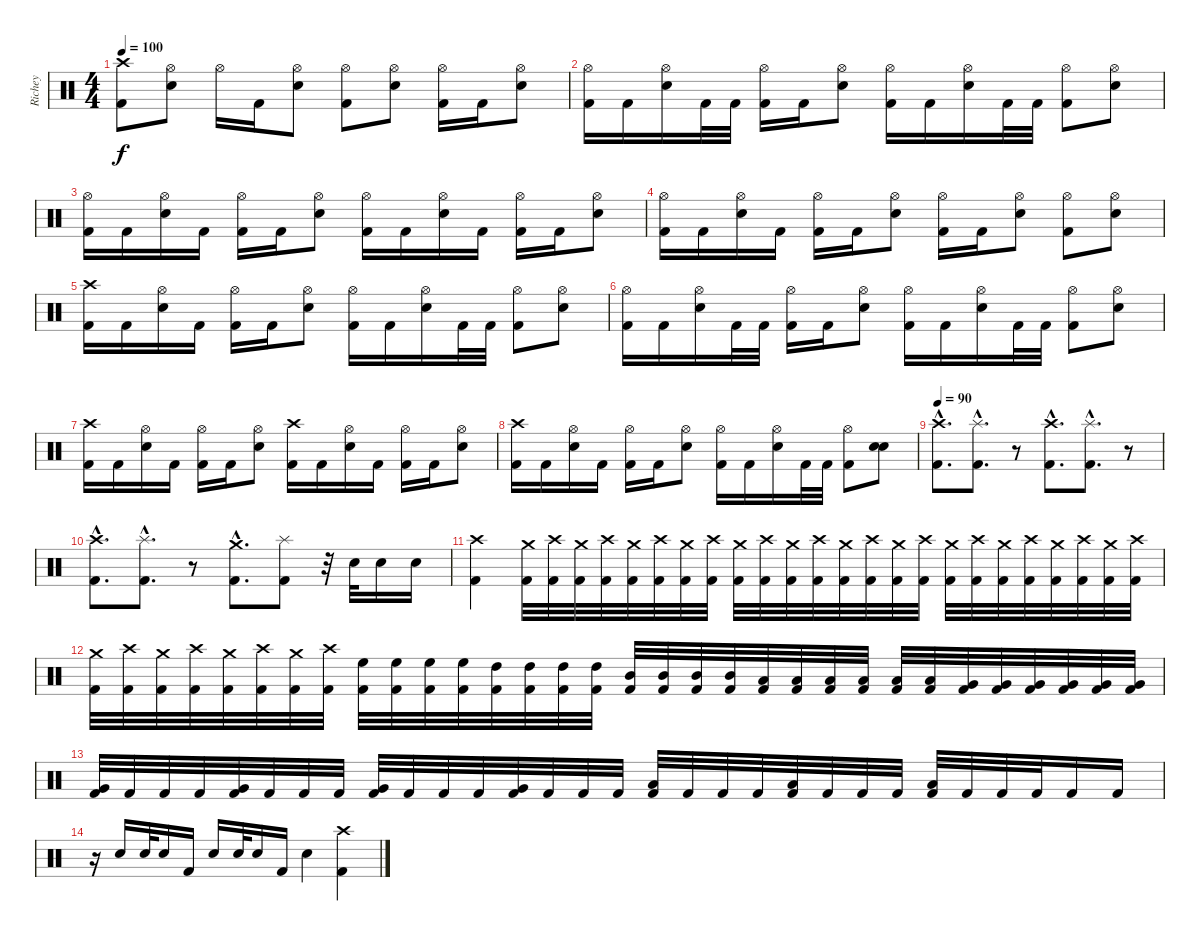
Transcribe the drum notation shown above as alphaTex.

\track ("Richey" "Richey") {instrument percussion}
\staff {score}
\articulation defaults
\ts (4 4)
\tempo 100
\clef neutral
\ks c
("Crash high (hit)" "Kick (hit) 2").8{dy f} ("Hi-Hat (open)" "Snare (hit) 2").8 "Hi-Hat (open)".16 "Kick (hit) 2".16 ("Hi-Hat (open)" "Snare (hit) 2").8 ("Hi-Hat (open)" "Kick (hit) 2").8 ("Hi-Hat (open)" "Snare (hit) 2").8 ("Hi-Hat (open)" "Kick (hit) 2").16 "Kick (hit) 2".16 ("Hi-Hat (open)" "Snare (hit) 2").8 |
("Hi-Hat (open)" "Kick (hit) 2").16 "Kick (hit) 2".16 ("Hi-Hat (open)" "Snare (hit) 2").16 "Kick (hit) 2".32 "Kick (hit) 2".32 ("Hi-Hat (open)" "Kick (hit) 2").16 "Kick (hit) 2".16 ("Hi-Hat (open)" "Snare (hit) 2").8 ("Hi-Hat (open)" "Kick (hit) 2").16 "Kick (hit) 2".16 ("Hi-Hat (open)" "Snare (hit) 2").16 "Kick (hit) 2".32 "Kick (hit) 2".32 ("Hi-Hat (open)" "Kick (hit) 2").8 ("Hi-Hat (open)" "Snare (hit) 2").8 |
("Hi-Hat (open)" "Kick (hit) 2").16 "Kick (hit) 2".16 ("Hi-Hat (open)" "Snare (hit) 2").16 "Kick (hit) 2".16 ("Hi-Hat (open)" "Kick (hit) 2").16 "Kick (hit) 2".16 ("Hi-Hat (open)" "Snare (hit) 2").8 ("Hi-Hat (open)" "Kick (hit) 2").16 "Kick (hit) 2".16 ("Hi-Hat (open)" "Snare (hit) 2").16 "Kick (hit) 2".16 ("Hi-Hat (open)" "Kick (hit) 2").16 "Kick (hit) 2".16 ("Hi-Hat (open)" "Snare (hit) 2").8 |
("Hi-Hat (open)" "Kick (hit) 2").16 "Kick (hit) 2".16 ("Hi-Hat (open)" "Snare (hit) 2").16 "Kick (hit) 2".16 ("Hi-Hat (open)" "Kick (hit) 2").16 "Kick (hit) 2".16 ("Hi-Hat (open)" "Snare (hit) 2").8 ("Hi-Hat (open)" "Kick (hit) 2").16 "Kick (hit) 2".16 ("Hi-Hat (open)" "Snare (hit) 2").8 ("Hi-Hat (open)" "Kick (hit) 2").8 ("Hi-Hat (open)" "Snare (hit) 2").8 |
("Crash high (hit)" "Kick (hit) 2").16 "Kick (hit) 2".16 ("Hi-Hat (open)" "Snare (hit) 2").16 "Kick (hit) 2".16 ("Hi-Hat (open)" "Kick (hit) 2").16 "Kick (hit) 2".16 ("Hi-Hat (open)" "Snare (hit) 2").8 ("Hi-Hat (open)" "Kick (hit) 2").16 "Kick (hit) 2".16 ("Hi-Hat (open)" "Snare (hit) 2").16 "Kick (hit) 2".32 "Kick (hit) 2".32 ("Hi-Hat (open)" "Kick (hit) 2").8 ("Hi-Hat (open)" "Snare (hit) 2").8 |
("Hi-Hat (open)" "Kick (hit) 2").16 "Kick (hit) 2".16 ("Hi-Hat (open)" "Snare (hit) 2").16 "Kick (hit) 2".32 "Kick (hit) 2".32 ("Hi-Hat (open)" "Kick (hit) 2").16 "Kick (hit) 2".16 ("Hi-Hat (open)" "Snare (hit) 2").8 ("Hi-Hat (open)" "Kick (hit) 2").16 "Kick (hit) 2".16 ("Hi-Hat (open)" "Snare (hit) 2").16 "Kick (hit) 2".32 "Kick (hit) 2".32 ("Hi-Hat (open)" "Kick (hit) 2").8 ("Hi-Hat (open)" "Snare (hit) 2").8 |
("Crash high (hit)" "Kick (hit) 2").16 "Kick (hit) 2".16 ("Hi-Hat (open)" "Snare (hit) 2").16 "Kick (hit) 2".16 ("Hi-Hat (open)" "Kick (hit) 2").16 "Kick (hit) 2".16 ("Hi-Hat (open)" "Snare (hit) 2").8 ("Crash high (hit)" "Kick (hit) 2").16 "Kick (hit) 2".16 ("Hi-Hat (open)" "Snare (hit) 2").16 "Kick (hit) 2".16 ("Hi-Hat (open)" "Kick (hit) 2").16 "Kick (hit) 2".16 ("Hi-Hat (open)" "Snare (hit) 2").8 |
("Crash high (hit)" "Kick (hit) 2").16 "Kick (hit) 2".16 ("Hi-Hat (open)" "Snare (hit) 2").16 "Kick (hit) 2".16 ("Hi-Hat (open)" "Kick (hit) 2").16 "Kick (hit) 2".16 ("Hi-Hat (open)" "Snare (hit) 2").8 ("Hi-Hat (open)" "Kick (hit) 2").16 "Kick (hit) 2".16 ("Hi-Hat (open)" "Snare (hit) 2").16 "Kick (hit) 2".32 "Kick (hit) 2".32 ("Hi-Hat (open)" "Kick (hit) 2").8 ("Snare (hit) 2" "Snare (hit) 2").8 |
\tempo 90
("Crash high (hit)"{hac} "Kick (hit) 2"{hac}).8{d} ("Splash (hit)"{hac} "Kick (hit) 2"{hac}).8{d} r.8 ("Crash high (hit)"{hac} "Kick (hit) 2"{hac}).8{d} ("Splash (hit)"{hac} "Kick (hit) 2"{hac}).8{d} r.8 |
("Crash high (hit)"{hac} "Kick (hit) 2"{hac}).8{d} ("Splash (hit)"{hac} "Kick (hit) 2"{hac}).8{d} r.8 ("Crash medium (hit)"{hac} "Kick (hit) 2"{hac}).8{d} ("Splash (hit)" "Kick (hit) 2").8 r.32 "Snare (hit) 2".32 "Snare (hit) 2".16 "Snare (hit) 2".16 |
("Crash high (hit)" "Kick (hit) 2").4 ("Crash medium (hit)" "Kick (hit) 2").32 ("Crash high (hit)" "Kick (hit) 2").32 ("Crash medium (hit)" "Kick (hit) 2").32 ("Crash high (hit)" "Kick (hit) 2").32 ("Crash medium (hit)" "Kick (hit) 2").32 ("Crash high (hit)" "Kick (hit) 2").32 ("Crash medium (hit)" "Kick (hit) 2").32 ("Crash high (hit)" "Kick (hit) 2").32 ("Crash medium (hit)" "Kick (hit) 2").32 ("Crash high (hit)" "Kick (hit) 2").32 ("Crash medium (hit)" "Kick (hit) 2").32 ("Crash high (hit)" "Kick (hit) 2").32 ("Crash medium (hit)" "Kick (hit) 2").32 ("Crash high (hit)" "Kick (hit) 2").32 ("Crash medium (hit)" "Kick (hit) 2").32 ("Crash high (hit)" "Kick (hit) 2").32 ("Crash medium (hit)" "Kick (hit) 2").32 ("Crash high (hit)" "Kick (hit) 2").32 ("Crash medium (hit)" "Kick (hit) 2").32 ("Crash high (hit)" "Kick (hit) 2").32 ("Crash medium (hit)" "Kick (hit) 2").32 ("Crash high (hit)" "Kick (hit) 2").32 ("Crash medium (hit)" "Kick (hit) 2").32 ("Crash high (hit)" "Kick (hit) 2").32 |
("Crash medium (hit)" "Kick (hit) 2").32 ("Crash high (hit)" "Kick (hit) 2").32 ("Crash medium (hit)" "Kick (hit) 2").32 ("Crash high (hit)" "Kick (hit) 2").32 ("Crash medium (hit)" "Kick (hit) 2").32 ("Crash high (hit)" "Kick (hit) 2").32 ("Crash medium (hit)" "Kick (hit) 2").32 ("Crash high (hit)" "Kick (hit) 2").32 ("High Floor Tom (hit)" "Kick (hit) 2").32 ("High Floor Tom (hit)" "Kick (hit) 2").32 ("High Floor Tom (hit)" "Kick (hit) 2").32 ("High Floor Tom (hit)" "Kick (hit) 2").32 ("High Tom (hit)" "Kick (hit) 2").32 ("High Tom (hit)" "Kick (hit) 2").32 ("High Tom (hit)" "Kick (hit) 2").32 ("High Tom (hit)" "Kick (hit) 2").32 ("Mid Tom (hit)" "Kick (hit) 2").32 ("Mid Tom (hit)" "Kick (hit) 2").32 ("Mid Tom (hit)" "Kick (hit) 2").32 ("Mid Tom (hit)" "Kick (hit) 2").32 ("Low Tom (hit)" "Kick (hit) 2").32 ("Low Tom (hit)" "Kick (hit) 2").32 ("Low Tom (hit)" "Kick (hit) 2").32 ("Low Tom (hit)" "Kick (hit) 2").32 ("Low Tom (hit)" "Kick (hit) 2").32 ("Low Tom (hit)" "Kick (hit) 2").32 ("Very Low Tom (hit)" "Kick (hit) 2").32 ("Very Low Tom (hit)" "Kick (hit) 2").32 ("Very Low Tom (hit)" "Kick (hit) 2").32 ("Very Low Tom (hit)" "Kick (hit) 2").32 ("Very Low Tom (hit)" "Kick (hit) 2").32 ("Very Low Tom (hit)" "Kick (hit) 2").32 |
("Very Low Tom (hit)" "Kick (hit) 2").32 "Kick (hit) 2".32 "Kick (hit) 2".32 "Kick (hit) 2".32 ("Very Low Tom (hit)" "Kick (hit) 2").32 "Kick (hit) 2".32 "Kick (hit) 2".32 "Kick (hit) 2".32 ("Very Low Tom (hit)" "Kick (hit) 2").32 "Kick (hit) 2".32 "Kick (hit) 2".32 "Kick (hit) 2".32 ("Very Low Tom (hit)" "Kick (hit) 2").32 "Kick (hit) 2".32 "Kick (hit) 2".32 "Kick (hit) 2".32 ("Low Floor Tom (hit)" "Kick (hit) 2").32 "Kick (hit) 2".32 "Kick (hit) 2".32 "Kick (hit) 2".32 ("Low Floor Tom (hit)" "Kick (hit) 2").32 "Kick (hit) 2".32 "Kick (hit) 2".32 "Kick (hit) 2".32 ("Low Floor Tom (hit)" "Kick (hit) 2").32 "Kick (hit) 2".32 "Kick (hit) 2".32 "Kick (hit) 2".32 "Kick (hit) 2".16 "Kick (hit) 2".16 |
r.16 "Snare (hit) 2".16 "Snare (hit) 2".32 "Snare (hit) 2".16 "Kick (hit) 2".16 "Snare (hit) 2".16 "Snare (hit) 2".32 "Snare (hit) 2".16 "Kick (hit) 2".16 "Snare (hit) 2".4 ("Crash high (hit)" "Kick (hit) 2").4
